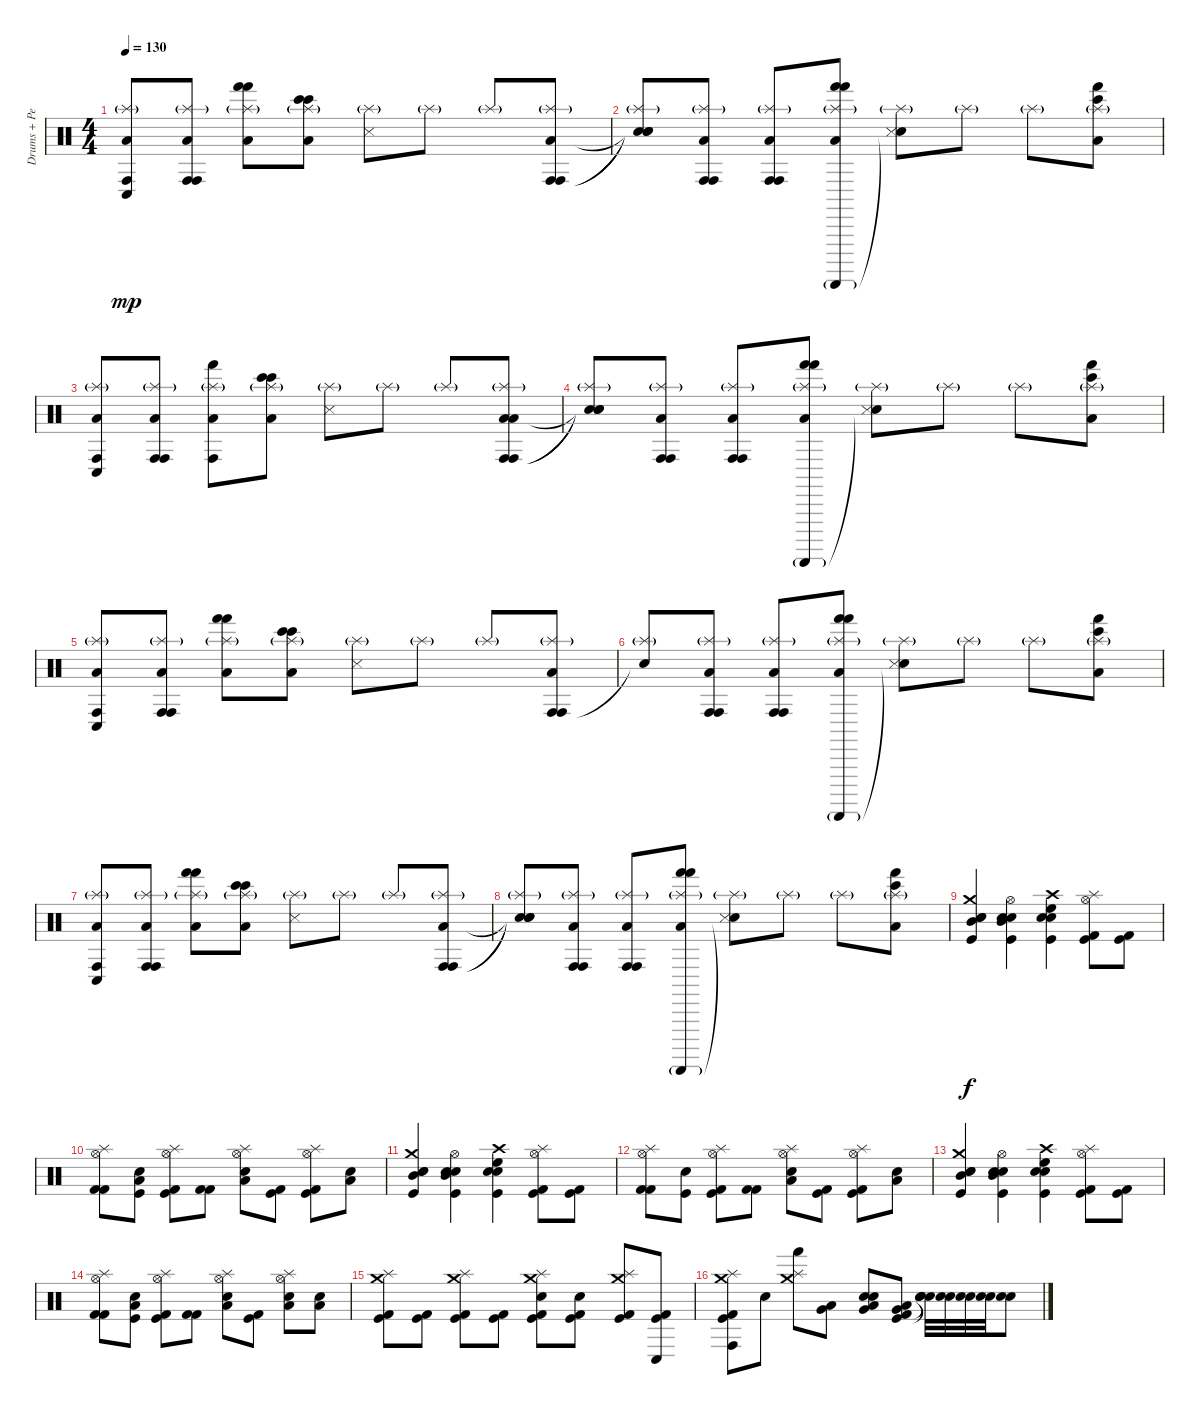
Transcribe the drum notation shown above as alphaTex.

\track ("Drums + Percussions (Dave Chavarri)" "Drums + Pe") {instrument percussion}
\staff {score}
\articulation defaults
\ts (4 4)
\tempo 130
\clef neutral
\ks c
("Splash (hit)"{g} "Low Floor Tom (hit)" "Conga high (hit)" "Conga low (hit)").8{dy mp} ("Splash (hit)"{g} "Low Floor Tom (hit)" "Conga high (hit)" "Conga high (hit)").8 ("Splash (hit)"{g} "Low Floor Tom (hit)" "Hand (hit)" "Hand (hit)").8 ("Splash (hit)"{g} "Bongo High (hit)" "Bongo High (hit)" "Low Floor Tom (hit)").8 ("Splash (hit)"{g} "Snare (side stick) 3").8 "Splash (hit)"{g}.8 "Splash (hit)"{g}.8 ("Splash (hit)"{g} "Low Floor Tom (hit)" "Conga high (hit)" "Conga high (hit)").8 |
("Splash (hit)"{g} "Snare (hit)"{t} "Snare (hit)"{t} "Snare (hit)"{t}).8 ("Splash (hit)"{g} "Conga high (hit)" "Conga high (hit)" "Low Floor Tom (hit)").8 ("Splash (hit)"{g} "Conga high (hit)" "Conga high (hit)" "Low Floor Tom (hit)").8 ("Splash (hit)"{g} "Guiro (scrap-return)"{g} "Hand (hit)" "Hand (hit)" "Low Floor Tom (hit)").8 ("Splash (hit)"{g} "Snare (hit)"{t} "Snare (side stick) 3").8 "Splash (hit)"{g}.8 "Splash (hit)"{g}.8 ("Splash (hit)"{g} "Hand (hit)" "Bongo High (hit)" "Low Floor Tom (hit)").8 |
("Splash (hit)"{g} "Low Floor Tom (hit)" "Conga high (hit)" "Conga low (hit)").8 ("Splash (hit)"{g} "Conga high (hit)" "Conga high (hit)" "Low Floor Tom (hit)").8 ("Splash (hit)"{g} "Conga high (hit)" "Hand (hit)" "Low Floor Tom (hit)").8 ("Splash (hit)"{g} "Bongo High (hit)" "Bongo High (hit)" "Low Floor Tom (hit)").8 ("Splash (hit)"{g} "Snare (side stick) 3").8 "Splash (hit)"{g}.8 "Splash (hit)"{g}.8 ("Splash (hit)"{g} "Low Floor Tom (hit)" "Conga high (hit)" "Conga high (hit)" "Low Floor Tom (hit)").8 |
("Splash (hit)"{g} "Snare (hit)"{t} "Snare (hit)"{t} "Snare (hit)"{t}).8 ("Splash (hit)"{g} "Conga high (hit)" "Conga high (hit)" "Low Floor Tom (hit)").8 ("Splash (hit)"{g} "Conga high (hit)" "Conga high (hit)" "Low Floor Tom (hit)").8 ("Splash (hit)"{g} "Guiro (scrap-return)"{g} "Hand (hit)" "Hand (hit)" "Low Floor Tom (hit)").8 ("Splash (hit)"{g} "Snare (hit)"{t} "Snare (side stick) 3").8 "Splash (hit)"{g}.8 "Splash (hit)"{g}.8 ("Splash (hit)"{g} "Hand (hit)" "Bongo High (hit)" "Low Floor Tom (hit)").8 |
("Splash (hit)"{g} "Low Floor Tom (hit)" "Conga high (hit)" "Conga low (hit)").8 ("Splash (hit)"{g} "Conga high (hit)" "Conga high (hit)" "Low Floor Tom (hit)").8 ("Splash (hit)"{g} "Hand (hit)" "Hand (hit)" "Low Floor Tom (hit)").8 ("Splash (hit)"{g} "Bongo High (hit)" "Bongo High (hit)" "Low Floor Tom (hit)").8 ("Splash (hit)"{g} "Snare (side stick) 3").8 "Splash (hit)"{g}.8 "Splash (hit)"{g}.8 ("Splash (hit)"{g} "Conga high (hit)" "Conga high (hit)" "Low Floor Tom (hit)").8 |
("Splash (hit)"{g} "Snare (hit)"{t}).8 ("Splash (hit)"{g} "Conga high (hit)" "Conga high (hit)" "Low Floor Tom (hit)").8 ("Splash (hit)"{g} "Conga high (hit)" "Conga high (hit)" "Low Floor Tom (hit)").8 ("Splash (hit)"{g} "Guiro (scrap-return)"{g} "Hand (hit)" "Hand (hit)" "Low Floor Tom (hit)").8 ("Splash (hit)"{g} "Snare (hit)"{t} "Snare (side stick) 3").8 "Splash (hit)"{g}.8 "Splash (hit)"{g}.8 ("Splash (hit)"{g} "Hand (hit)" "Bongo High (hit)" "Low Floor Tom (hit)").8 |
("Splash (hit)"{g} "Low Floor Tom (hit)" "Conga high (hit)" "Conga low (hit)").8 ("Splash (hit)"{g} "Conga high (hit)" "Conga high (hit)" "Low Floor Tom (hit)").8 ("Splash (hit)"{g} "Hand (hit)" "Hand (hit)" "Low Floor Tom (hit)").8 ("Splash (hit)"{g} "Bongo High (hit)" "Bongo High (hit)" "Low Floor Tom (hit)").8 ("Splash (hit)"{g} "Snare (side stick) 3").8 "Splash (hit)"{g}.8 "Splash (hit)"{g}.8 ("Splash (hit)"{g} "Conga high (hit)" "Conga high (hit)" "Low Floor Tom (hit)").8 |
("Splash (hit)"{g} "Snare (hit)"{t} "Snare (hit)"{t} "Snare (hit)"{t}).8 ("Splash (hit)"{g} "Conga high (hit)" "Conga high (hit)" "Low Floor Tom (hit)").8 ("Splash (hit)"{g} "Conga high (hit)" "Conga high (hit)" "Low Floor Tom (hit)").8 ("Splash (hit)"{g} "Guiro (scrap-return)"{g} "Hand (hit)" "Hand (hit)" "Low Floor Tom (hit)").8 ("Splash (hit)"{g} "Snare (hit)"{t} "Snare (side stick) 3").8 "Splash (hit)"{g}.8 "Splash (hit)"{g}.8 ("Splash (hit)"{g} "Hand (hit)" "Bongo High (hit)" "Low Floor Tom (hit)").8 |
("Crash medium (hit)" "Snare (hit) 2" "Electric Snare (hit)" "Mid Tom (hit)" "Kick (hit)").4{dy f} ("Hi-Hat (open)" "Snare (hit) 2" "Electric Snare (hit)" "Mid Tom (hit)" "Kick (hit)").4 ("Crash high (hit)" "Snare (hit) 2" "Electric Snare (hit)" "High Floor Tom (hit)" "Kick (hit)").4 ("Hi-Hat (open)" "Splash (hit)" "Kick (hit) 2" "Kick (hit)").8 ("Kick (hit) 2" "Kick (hit)").8 |
("Hi-Hat (open)" "Splash (hit)" "Kick (hit) 2" "Kick (hit) 2").8 ("Electric Snare (hit)" "Low Floor Tom (hit)" "Kick (hit)").8 ("Hi-Hat (open)" "Splash (hit)" "Kick (hit) 2" "Kick (hit)").8 ("Kick (hit) 2" "Kick (hit) 2").8 ("Hi-Hat (open)" "Splash (hit)" "Electric Snare (hit)" "Low Floor Tom (hit)").8 ("Kick (hit)" "Kick (hit) 2").8 ("Hi-Hat (open)" "Splash (hit)" "Kick (hit)" "Kick (hit) 2").8 ("Electric Snare (hit)" "Low Floor Tom (hit)").8 |
("Crash medium (hit)" "Snare (hit) 2" "Electric Snare (hit)" "Mid Tom (hit)" "Kick (hit)").4 ("Hi-Hat (open)" "Snare (hit) 2" "Electric Snare (hit)" "Mid Tom (hit)" "Kick (hit)").4 ("Crash high (hit)" "Snare (hit) 2" "Electric Snare (hit)" "High Floor Tom (hit)" "Kick (hit)").4 ("Hi-Hat (open)" "Splash (hit)" "Kick (hit) 2" "Kick (hit)").8 ("Kick (hit) 2" "Kick (hit)").8 |
("Hi-Hat (open)" "Splash (hit)" "Kick (hit) 2" "Kick (hit) 2").8 ("Electric Snare (hit)" "Kick (hit)").8 ("Hi-Hat (open)" "Splash (hit)" "Kick (hit) 2" "Kick (hit)").8 ("Kick (hit) 2" "Kick (hit) 2").8 ("Hi-Hat (open)" "Splash (hit)" "Electric Snare (hit)" "Low Floor Tom (hit)").8 ("Kick (hit)" "Kick (hit) 2").8 ("Hi-Hat (open)" "Splash (hit)" "Kick (hit)" "Kick (hit) 2").8 ("Electric Snare (hit)" "Low Floor Tom (hit)").8 |
("Crash medium (hit)" "Snare (hit) 2" "Electric Snare (hit)" "Mid Tom (hit)" "Kick (hit)").4 ("Hi-Hat (open)" "Snare (hit) 2" "Electric Snare (hit)" "Mid Tom (hit)" "Kick (hit)").4 ("Crash high (hit)" "Snare (hit) 2" "Electric Snare (hit)" "High Floor Tom (hit)" "Kick (hit)").4 ("Hi-Hat (open)" "Splash (hit)" "Kick (hit) 2" "Kick (hit)").8 ("Kick (hit) 2" "Kick (hit)").8 |
("Hi-Hat (open)" "Splash (hit)" "Kick (hit) 2" "Kick (hit) 2").8 ("Electric Snare (hit)" "Low Floor Tom (hit)" "Kick (hit)").8 ("Hi-Hat (open)" "Splash (hit)" "Kick (hit) 2" "Kick (hit)").8 ("Kick (hit) 2" "Kick (hit) 2").8 ("Hi-Hat (open)" "Splash (hit)" "Electric Snare (hit)" "Low Floor Tom (hit)").8 ("Kick (hit)" "Kick (hit) 2").8 ("Hi-Hat (open)" "Splash (hit)" "Electric Snare (hit)" "Low Floor Tom (hit)").8 ("Electric Snare (hit)" "Low Floor Tom (hit)").8 |
("Crash medium (hit)" "Splash (hit)" "Kick (hit)" "Kick (hit) 2").8 ("Kick (hit)" "Kick (hit) 2").8 ("Crash medium (hit)" "Splash (hit)" "Kick (hit)" "Kick (hit) 2").8 ("Kick (hit)" "Kick (hit) 2").8 ("Crash medium (hit)" "Splash (hit)" "Electric Snare (hit)" "Kick (hit)" "Kick (hit) 2").8 ("Electric Snare (hit)" "Kick (hit)" "Kick (hit) 2").8 ("Crash medium (hit)" "Splash (hit)" "Kick (hit)" "Kick (hit) 2").8 ("Conga low (hit)" "Kick (hit)" "Kick (hit) 2").8 |
("Crash medium (hit)" "Splash (hit)" "Conga high (hit)" "Kick (hit)" "Kick (hit) 2").8 "Electric Snare (hit)".8 ("Crash medium (hit)" "Splash (hit)" "Hand (hit)").8 ("Low Floor Tom (hit)" "Very Low Tom (hit)").8 ("Snare (hit) 2" "Electric Snare (hit)" "Low Floor Tom (hit)" "Very Low Tom (hit)").8 ("Kick (hit) 2" "Kick (hit)" "Low Floor Tom (hit)" "Very Low Tom (hit)").8 ("Snare (hit)"{t} "Snare (hit)"{t} "Electric Snare (hit)" "Electric Snare (hit)").32 ("Electric Snare (hit)" "Electric Snare (hit)").32 ("Electric Snare (hit)" "Electric Snare (hit)").32 ("Electric Snare (hit)" "Electric Snare (hit)").32 ("Electric Snare (hit)" "Snare (hit) 2").8
